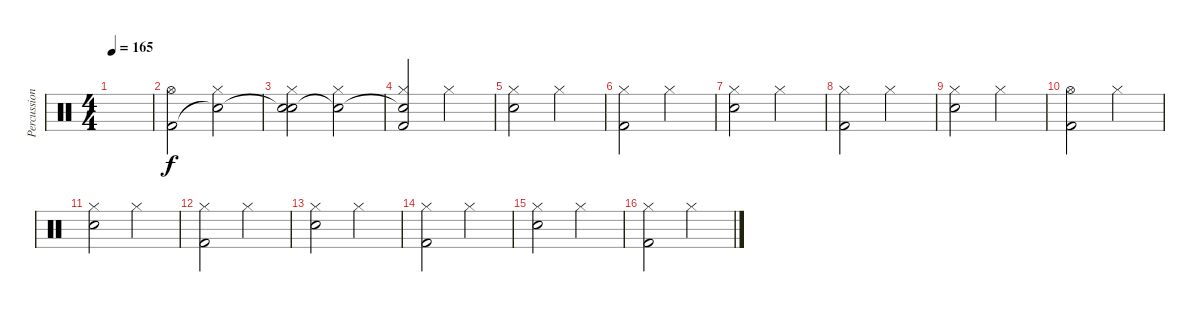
\track ("Percussion" "Percussion") {instrument percussion}
\staff {score}
\articulation defaults
\ts (4 4)
\tempo 165
\clef neutral
\ks c
|
("Hi-Hat (open)" "Kick (hit) 2").2 ("Hi-Hat (closed)" "Snare (hit)"{t}).2 |
("Hi-Hat (closed)" "Snare (hit)"{t} "Electric Snare (hit)").2 ("Hi-Hat (closed)" "Snare (hit)"{t}).2 |
("Hi-Hat (closed)" "Snare (hit)"{t} "Kick (hit) 2").2 "Hi-Hat (closed)".2 |
("Hi-Hat (closed)" "Electric Snare (hit)").2 "Hi-Hat (closed)".2 |
("Hi-Hat (closed)" "Kick (hit) 2").2 "Hi-Hat (closed)".2 |
("Hi-Hat (closed)" "Electric Snare (hit)").2 "Hi-Hat (closed)".2 |
("Hi-Hat (closed)" "Kick (hit) 2").2 "Hi-Hat (closed)".2 |
("Hi-Hat (closed)" "Electric Snare (hit)").2 "Hi-Hat (closed)".2 |
("Hi-Hat (open)" "Kick (hit) 2").2 "Hi-Hat (closed)".2 |
("Hi-Hat (closed)" "Electric Snare (hit)").2 "Hi-Hat (closed)".2 |
("Hi-Hat (closed)" "Kick (hit) 2").2 "Hi-Hat (closed)".2 |
("Hi-Hat (closed)" "Electric Snare (hit)").2 "Hi-Hat (closed)".2 |
("Hi-Hat (closed)" "Kick (hit) 2").2 "Hi-Hat (closed)".2 |
("Hi-Hat (closed)" "Electric Snare (hit)").2 "Hi-Hat (closed)".2 |
("Hi-Hat (closed)" "Kick (hit) 2").2 "Hi-Hat (closed)".2
